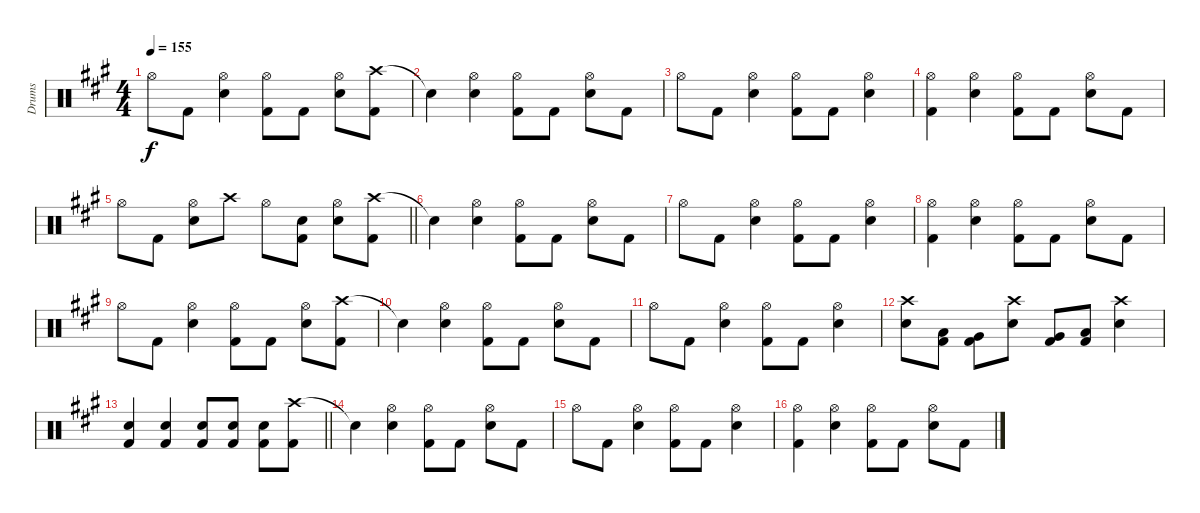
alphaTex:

\track ("Drums" "Drums") {instrument percussion}
\staff {score}
\articulation defaults
\ts (4 4)
\tempo 155
\clef neutral
\ks a "Hi-Hat (open)".8{dy f} "Kick (hit) 2".8
("Hi-Hat (open)" "Snare (hit) 2").4 ("Hi-Hat (open)" "Kick (hit) 2").8 "Kick (hit) 2".8 ("Hi-Hat (open)" "Snare (hit) 2").8 ("Crash high (hit)" "Kick (hit) 2").8 |
"Snare (hit)"{t}.4 ("Hi-Hat (open)" "Snare (hit) 2").4 ("Hi-Hat (open)" "Kick (hit) 2").8 "Kick (hit) 2".8 ("Hi-Hat (open)" "Snare (hit) 2").8 "Kick (hit) 2".8 |
"Hi-Hat (open)".8 "Kick (hit) 2".8 ("Hi-Hat (open)" "Snare (hit) 2").4 ("Hi-Hat (open)" "Kick (hit) 2").8 "Kick (hit) 2".8 ("Hi-Hat (open)" "Snare (hit) 2").4 |
("Hi-Hat (open)" "Kick (hit) 2").4 ("Hi-Hat (open)" "Snare (hit) 2").4 ("Hi-Hat (open)" "Kick (hit) 2").8 "Kick (hit) 2".8 ("Hi-Hat (open)" "Snare (hit) 2").8 "Kick (hit) 2".8 |
\barLineRight lightlight "Hi-Hat (open)".8 "Kick (hit) 2".8
("Hi-Hat (open)" "Snare (hit) 2").8 "Crash high (hit)".8 "Hi-Hat (open)".8 ("Snare (hit) 2" "Kick (hit) 2").8 ("Hi-Hat (open)" "Snare (hit) 2").8 ("Crash high (hit)" "Kick (hit) 2").8 |
"Snare (hit)"{t}.4 ("Hi-Hat (open)" "Snare (hit) 2").4 ("Hi-Hat (open)" "Kick (hit) 2").8 "Kick (hit) 2".8 ("Hi-Hat (open)" "Snare (hit) 2").8 "Kick (hit) 2".8 |
"Hi-Hat (open)".8 "Kick (hit) 2".8 ("Hi-Hat (open)" "Snare (hit) 2").4 ("Hi-Hat (open)" "Kick (hit) 2").8 "Kick (hit) 2".8 ("Hi-Hat (open)" "Snare (hit) 2").4 |
("Hi-Hat (open)" "Kick (hit) 2").4 ("Hi-Hat (open)" "Snare (hit) 2").4 ("Hi-Hat (open)" "Kick (hit) 2").8 "Kick (hit) 2".8 ("Hi-Hat (open)" "Snare (hit) 2").8 "Kick (hit) 2".8 |
"Hi-Hat (open)".8 "Kick (hit) 2".8 ("Hi-Hat (open)" "Snare (hit) 2").4 ("Hi-Hat (open)" "Kick (hit) 2").8 "Kick (hit) 2".8 ("Hi-Hat (open)" "Snare (hit) 2").8 ("Crash high (hit)" "Kick (hit) 2").8 |
"Snare (hit)"{t}.4 ("Hi-Hat (open)" "Snare (hit) 2").4 ("Hi-Hat (open)" "Kick (hit) 2").8 "Kick (hit) 2".8 ("Hi-Hat (open)" "Snare (hit) 2").8 "Kick (hit) 2".8 |
"Hi-Hat (open)".8 "Kick (hit) 2".8 ("Hi-Hat (open)" "Snare (hit) 2").4 ("Hi-Hat (open)" "Kick (hit) 2").8 "Kick (hit) 2".8 ("Hi-Hat (open)" "Snare (hit) 2").4 |
("Crash high (hit)" "Snare (hit) 2").8 ("Low Tom (hit)" "Kick (hit) 2").8 ("Very Low Tom (hit)" "Kick (hit) 2").8 ("Crash high (hit)" "Snare (hit) 2").8 ("Very Low Tom (hit)" "Kick (hit) 2").8 ("Low Floor Tom (hit)" "Kick (hit) 2").8 ("Crash high (hit)" "Snare (hit) 2").4 |
\barLineRight lightlight
("Snare (hit) 2" "Kick (hit) 2").4 ("Snare (hit) 2" "Kick (hit) 2").4 ("Snare (hit) 2" "Kick (hit) 2").8 ("Snare (hit) 2" "Kick (hit) 2").8 ("Snare (hit) 2" "Kick (hit) 2").8 ("Crash high (hit)" "Kick (hit) 2").8 |
"Snare (hit)"{t}.4 ("Hi-Hat (open)" "Snare (hit) 2").4 ("Hi-Hat (open)" "Kick (hit) 2").8 "Kick (hit) 2".8 ("Hi-Hat (open)" "Snare (hit) 2").8 "Kick (hit) 2".8 |
"Hi-Hat (open)".8 "Kick (hit) 2".8 ("Hi-Hat (open)" "Snare (hit) 2").4 ("Hi-Hat (open)" "Kick (hit) 2").8 "Kick (hit) 2".8 ("Hi-Hat (open)" "Snare (hit) 2").4 |
("Hi-Hat (open)" "Kick (hit) 2").4 ("Hi-Hat (open)" "Snare (hit) 2").4 ("Hi-Hat (open)" "Kick (hit) 2").8 "Kick (hit) 2".8 ("Hi-Hat (open)" "Snare (hit) 2").8 "Kick (hit) 2".8
